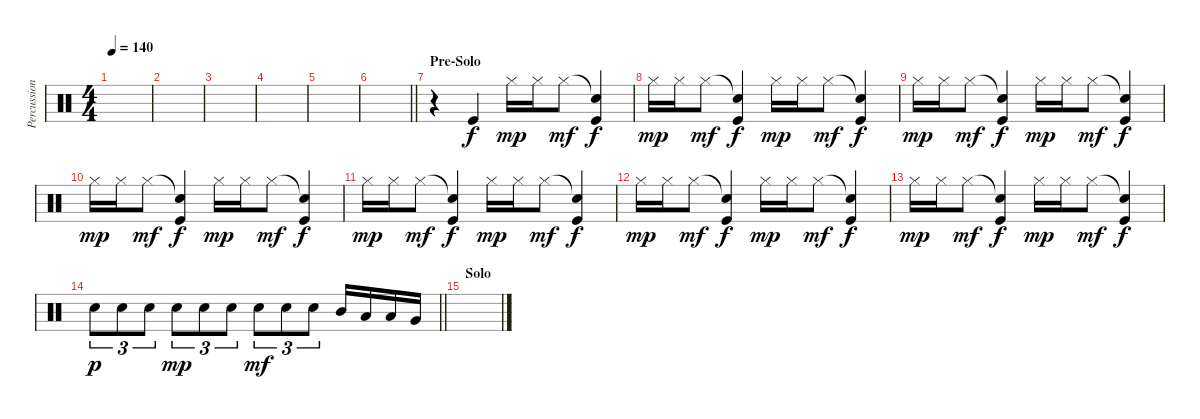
\track ("Percussion" "Percussion") {instrument percussion}
\staff {score}
\articulation defaults
\ts (4 4)
\tempo 140
\clef neutral
\ks c
|
|
|
|
|
\barLineRight lightlight
|
\section ("" "Pre-Solo")
r.4 "Kick (hit)".4 "Hi-Hat (closed)".16{dy mp} "Hi-Hat (closed)".16 "Hi-Hat (closed)".8{dy mf} ("Snare (hit)"{t} "Kick (hit)").4{dy f} |
"Hi-Hat (closed)".16{dy mp} "Hi-Hat (closed)".16 "Hi-Hat (closed)".8{dy mf} ("Snare (hit)"{t} "Kick (hit)").4{dy f} "Hi-Hat (closed)".16{dy mp} "Hi-Hat (closed)".16 "Hi-Hat (closed)".8{dy mf} ("Snare (hit)"{t} "Kick (hit)").4{dy f} |
"Hi-Hat (closed)".16{dy mp} "Hi-Hat (closed)".16 "Hi-Hat (closed)".8{dy mf} ("Snare (hit)"{t} "Kick (hit)").4{dy f} "Hi-Hat (closed)".16{dy mp} "Hi-Hat (closed)".16 "Hi-Hat (closed)".8{dy mf} ("Snare (hit)"{t} "Kick (hit)").4{dy f} |
"Hi-Hat (closed)".16{dy mp} "Hi-Hat (closed)".16 "Hi-Hat (closed)".8{dy mf} ("Snare (hit)"{t} "Kick (hit)").4{dy f} "Hi-Hat (closed)".16{dy mp} "Hi-Hat (closed)".16 "Hi-Hat (closed)".8{dy mf} ("Snare (hit)"{t} "Kick (hit)").4{dy f} |
"Hi-Hat (closed)".16{dy mp} "Hi-Hat (closed)".16 "Hi-Hat (closed)".8{dy mf} ("Snare (hit)"{t} "Kick (hit)").4{dy f} "Hi-Hat (closed)".16{dy mp} "Hi-Hat (closed)".16 "Hi-Hat (closed)".8{dy mf} ("Snare (hit)"{t} "Kick (hit)").4{dy f} |
"Hi-Hat (closed)".16{dy mp} "Hi-Hat (closed)".16 "Hi-Hat (closed)".8{dy mf} ("Snare (hit)"{t} "Kick (hit)").4{dy f} "Hi-Hat (closed)".16{dy mp} "Hi-Hat (closed)".16 "Hi-Hat (closed)".8{dy mf} ("Snare (hit)"{t} "Kick (hit)").4{dy f} |
"Hi-Hat (closed)".16{dy mp} "Hi-Hat (closed)".16 "Hi-Hat (closed)".8{dy mf} ("Snare (hit)"{t} "Kick (hit)").4{dy f} "Hi-Hat (closed)".16{dy mp} "Hi-Hat (closed)".16 "Hi-Hat (closed)".8{dy mf} ("Snare (hit)"{t} "Kick (hit)").4{dy f} |
\barLineRight lightlight "Electric Snare (hit)".8{tu (3 2) dy p} "Electric Snare (hit)".8{tu (3 2)} "Electric Snare (hit)".8{tu (3 2)} "Electric Snare (hit)".8{tu (3 2) dy mp} "Electric Snare (hit)".8{tu (3 2)} "Electric Snare (hit)".8{tu (3 2)} "Electric Snare (hit)".8{tu (3 2) dy mf} "Electric Snare (hit)".8{tu (3 2)} "Electric Snare (hit)".8{tu (3 2)} "Mid Tom (hit)".16 "Low Tom (hit)".16 "Low Tom (hit)".16 "Very Low Tom (hit)".16
|
\section ("" "Solo")
